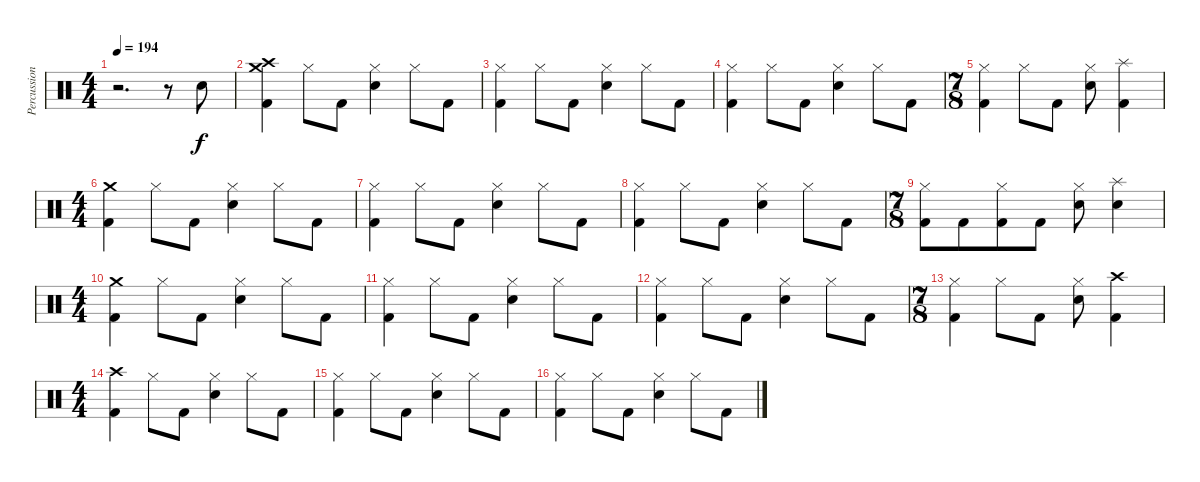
\track ("Percussions" "Percussion") {instrument percussion}
\staff {score}
\articulation defaults
\ts (4 4)
\tempo 194
\clef neutral
\ks c
r.2{d dy f} r.8 "Electric Snare (hit)".8 |
("Crash high (hit)" "Crash medium (hit)" "Kick (hit) 2").4 "Hi-Hat (closed)".8 "Kick (hit) 2".8 ("Hi-Hat (closed)" "Electric Snare (hit)").4 "Hi-Hat (closed)".8 "Kick (hit) 2".8 |
("Hi-Hat (closed)" "Kick (hit) 2").4 "Hi-Hat (closed)".8 "Kick (hit) 2".8 ("Hi-Hat (closed)" "Electric Snare (hit)").4 "Hi-Hat (closed)".8 "Kick (hit) 2".8 |
("Hi-Hat (closed)" "Kick (hit) 2").4 "Hi-Hat (closed)".8 "Kick (hit) 2".8 ("Hi-Hat (closed)" "Electric Snare (hit)").4 "Hi-Hat (closed)".8 "Kick (hit) 2".8 |
\ts (7 8)
("Hi-Hat (closed)" "Kick (hit) 2").4 "Hi-Hat (closed)".8 "Kick (hit) 2".8 ("Hi-Hat (closed)" "Electric Snare (hit)").8 ("Splash (hit)" "Kick (hit) 2").4 |
\ts (4 4)
("Crash medium (hit)" "Kick (hit) 2").4 "Hi-Hat (closed)".8 "Kick (hit) 2".8 ("Hi-Hat (closed)" "Electric Snare (hit)").4 "Hi-Hat (closed)".8 "Kick (hit) 2".8 |
("Hi-Hat (closed)" "Kick (hit) 2").4 "Hi-Hat (closed)".8 "Kick (hit) 2".8 ("Hi-Hat (closed)" "Electric Snare (hit)").4 "Hi-Hat (closed)".8 "Kick (hit) 2".8 |
("Hi-Hat (closed)" "Kick (hit) 2").4 "Hi-Hat (closed)".8 "Kick (hit) 2".8 ("Hi-Hat (closed)" "Electric Snare (hit)").4 "Hi-Hat (closed)".8 "Kick (hit) 2".8 |
\ts (7 8)
("Hi-Hat (closed)" "Kick (hit) 2").8 "Kick (hit) 2".8 ("Hi-Hat (closed)" "Kick (hit) 2").8 "Kick (hit) 2".8 ("Hi-Hat (closed)" "Electric Snare (hit)").8 ("Splash (hit)" "Electric Snare (hit)").4 |
\ts (4 4)
("Crash medium (hit)" "Kick (hit) 2").4 "Hi-Hat (closed)".8 "Kick (hit) 2".8 ("Hi-Hat (closed)" "Electric Snare (hit)").4 "Hi-Hat (closed)".8 "Kick (hit) 2".8 |
("Hi-Hat (closed)" "Kick (hit) 2").4 "Hi-Hat (closed)".8 "Kick (hit) 2".8 ("Hi-Hat (closed)" "Electric Snare (hit)").4 "Hi-Hat (closed)".8 "Kick (hit) 2".8 |
("Hi-Hat (closed)" "Kick (hit) 2").4 "Hi-Hat (closed)".8 "Kick (hit) 2".8 ("Hi-Hat (closed)" "Electric Snare (hit)").4 "Hi-Hat (closed)".8 "Kick (hit) 2".8 |
\ts (7 8)
("Hi-Hat (closed)" "Kick (hit) 2").4 "Hi-Hat (closed)".8 "Kick (hit) 2".8 ("Hi-Hat (closed)" "Electric Snare (hit)").8 ("Crash high (hit)" "Kick (hit) 2").4 |
\ts (4 4)
("Crash high (hit)" "Kick (hit) 2").4 "Hi-Hat (closed)".8 "Kick (hit) 2".8 ("Hi-Hat (closed)" "Electric Snare (hit)").4 "Hi-Hat (closed)".8 "Kick (hit) 2".8 |
("Hi-Hat (closed)" "Kick (hit) 2").4 "Hi-Hat (closed)".8 "Kick (hit) 2".8 ("Hi-Hat (closed)" "Electric Snare (hit)").4 "Hi-Hat (closed)".8 "Kick (hit) 2".8 |
("Hi-Hat (closed)" "Kick (hit) 2").4 "Hi-Hat (closed)".8 "Kick (hit) 2".8 ("Hi-Hat (closed)" "Electric Snare (hit)").4 "Hi-Hat (closed)".8 "Kick (hit) 2".8
